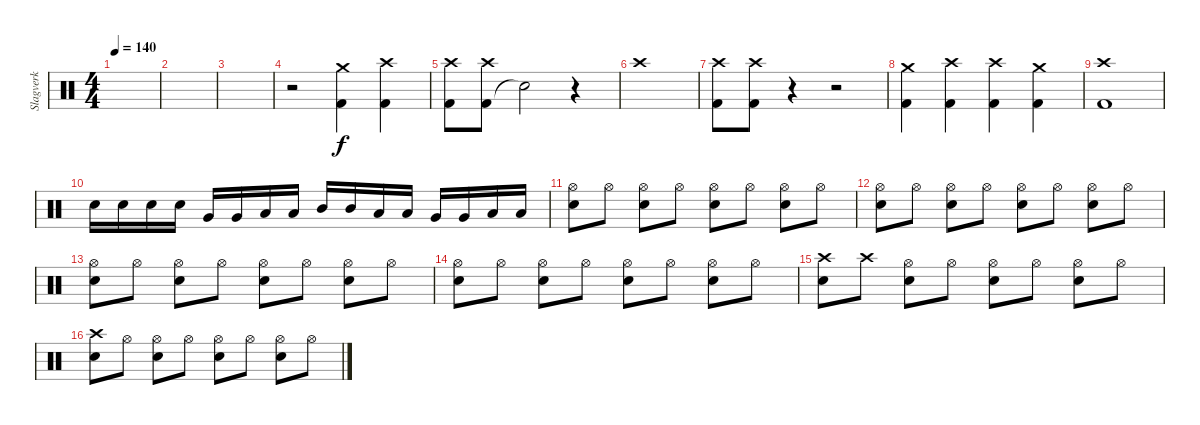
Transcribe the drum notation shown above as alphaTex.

\track ("Slagverk" "Slagverk") {instrument percussion}
\staff {score}
\articulation defaults
\ts (4 4)
\tempo 140
\clef neutral
\ks c
|
|
|
r.2 ("Kick (hit) 2" "Crash medium (hit)").4 ("Kick (hit) 2" "Crash high (hit)").4 |
("Kick (hit) 2" "Crash high (hit)").8 ("Kick (hit) 2" "Crash high (hit)").8 "Snare (hit)"{t}.2 r.4 |
"Crash high (hit)".1 |
("Kick (hit) 2" "Crash high (hit)").8 ("Kick (hit) 2" "Crash high (hit)").8 r.4 r.2 |
("Kick (hit) 2" "Crash medium (hit)").4 ("Kick (hit) 2" "Crash high (hit)").4 ("Kick (hit) 2" "Crash high (hit)").4 ("Kick (hit) 2" "Crash medium (hit)").4 |
("Kick (hit) 2" "Crash high (hit)").1 |
"Snare (hit) 2".16 "Snare (hit) 2".16 "Snare (hit) 2".16 "Snare (hit) 2".16 "Very Low Tom (hit)".16 "Very Low Tom (hit)".16 "Low Tom (hit)".16 "Low Tom (hit)".16 "Mid Tom (hit)".16 "Mid Tom (hit)".16 "Low Tom (hit)".16 "Low Tom (hit)".16 "Very Low Tom (hit)".16 "Very Low Tom (hit)".16 "Low Floor Tom (hit)".16 "Low Floor Tom (hit)".16 |
("Hi-Hat (open)" "Snare (hit) 2").8 "Hi-Hat (open)".8 ("Hi-Hat (open)" "Snare (hit) 2").8 "Hi-Hat (open)".8 ("Hi-Hat (open)" "Snare (hit) 2").8 "Hi-Hat (open)".8 ("Hi-Hat (open)" "Snare (hit) 2").8 "Hi-Hat (open)".8 |
("Hi-Hat (open)" "Snare (hit) 2").8 "Hi-Hat (open)".8 ("Hi-Hat (open)" "Snare (hit) 2").8 "Hi-Hat (open)".8 ("Hi-Hat (open)" "Snare (hit) 2").8 "Hi-Hat (open)".8 ("Hi-Hat (open)" "Snare (hit) 2").8 "Hi-Hat (open)".8 |
("Hi-Hat (open)" "Snare (hit) 2").8 "Hi-Hat (open)".8 ("Hi-Hat (open)" "Snare (hit) 2").8 "Hi-Hat (open)".8 ("Hi-Hat (open)" "Snare (hit) 2").8 "Hi-Hat (open)".8 ("Hi-Hat (open)" "Snare (hit) 2").8 "Hi-Hat (open)".8 |
("Hi-Hat (open)" "Snare (hit) 2").8 "Hi-Hat (open)".8 ("Hi-Hat (open)" "Snare (hit) 2").8 "Hi-Hat (open)".8 ("Hi-Hat (open)" "Snare (hit) 2").8 "Hi-Hat (open)".8 ("Hi-Hat (open)" "Snare (hit) 2").8 "Hi-Hat (open)".8 |
("Crash high (hit)" "Snare (hit) 2").8 "Crash high (hit)".8 ("Hi-Hat (open)" "Snare (hit) 2").8 "Hi-Hat (open)".8 ("Hi-Hat (open)" "Snare (hit) 2").8 "Hi-Hat (open)".8 ("Hi-Hat (open)" "Snare (hit) 2").8 "Hi-Hat (open)".8 |
("Crash high (hit)" "Snare (hit) 2").8 "Hi-Hat (open)".8 ("Hi-Hat (open)" "Snare (hit) 2").8 "Hi-Hat (open)".8 ("Hi-Hat (open)" "Snare (hit) 2").8 "Hi-Hat (open)".8 ("Hi-Hat (open)" "Snare (hit) 2").8 "Hi-Hat (open)".8
